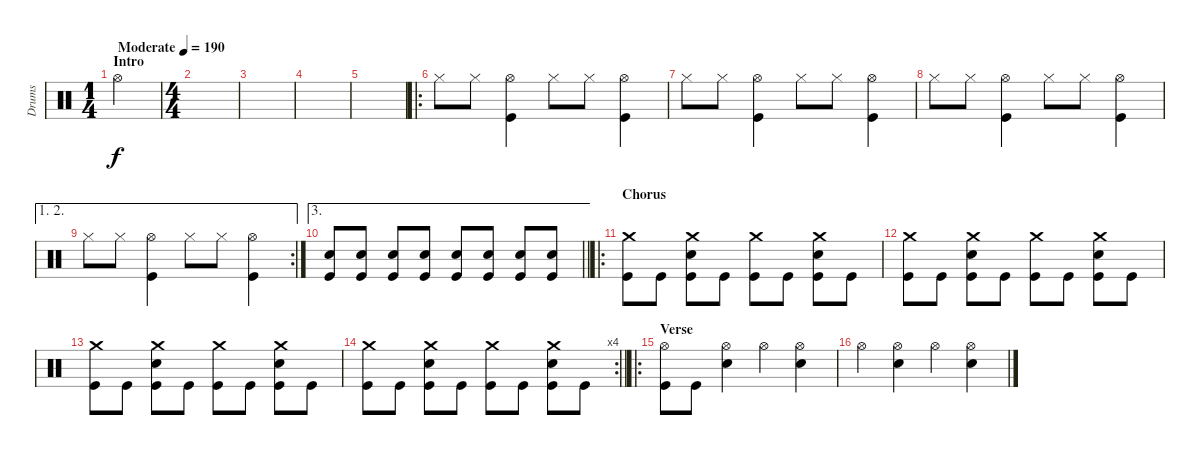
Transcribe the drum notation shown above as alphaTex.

\track ("Drums" "Drums") {instrument percussion}
\staff {score}
\articulation defaults
\ts (1 4)
\section ("" "Intro")
\tempo (190 "Moderate")
\clef neutral
\ks c "Hi-Hat (open)".4{dy f}
|
\ts (4 4)
|
|
|
|
\ro "Hi-Hat (closed)".8 "Hi-Hat (closed)".8
("Hi-Hat (open)" "Kick (hit)").4 "Hi-Hat (closed)".8 "Hi-Hat (closed)".8 ("Hi-Hat (open)" "Kick (hit)").4 |
"Hi-Hat (closed)".8 "Hi-Hat (closed)".8 ("Hi-Hat (open)" "Kick (hit)").4 "Hi-Hat (closed)".8 "Hi-Hat (closed)".8 ("Hi-Hat (open)" "Kick (hit)").4 |
"Hi-Hat (closed)".8 "Hi-Hat (closed)".8 ("Hi-Hat (open)" "Kick (hit)").4 "Hi-Hat (closed)".8 "Hi-Hat (closed)".8 ("Hi-Hat (open)" "Kick (hit)").4 |
\ae (1 2)
\rc 2 "Hi-Hat (closed)".8 "Hi-Hat (closed)".8
("Hi-Hat (open)" "Kick (hit)").4 "Hi-Hat (closed)".8 "Hi-Hat (closed)".8 ("Hi-Hat (open)" "Kick (hit)").4 |
\ae 3
\barLineRight lightlight
("Snare (hit) 2" "Kick (hit)").8 ("Snare (hit) 2" "Kick (hit)").8 ("Snare (hit) 2" "Kick (hit)").8 ("Snare (hit) 2" "Kick (hit)").8 ("Snare (hit) 2" "Kick (hit)").8 ("Snare (hit) 2" "Kick (hit)").8 ("Snare (hit) 2" "Kick (hit)").8 ("Snare (hit) 2" "Kick (hit)").8 |
\ro
\section ("" "Chorus")
("Crash medium (hit)" "Kick (hit)").8 "Kick (hit)".8 ("Crash medium (hit)" "Snare (hit) 2" "Kick (hit)").8 "Kick (hit)".8 ("Crash medium (hit)" "Kick (hit)").8 "Kick (hit)".8 ("Crash medium (hit)" "Snare (hit) 2" "Kick (hit)").8 "Kick (hit)".8 |
("Crash medium (hit)" "Kick (hit)").8 "Kick (hit)".8 ("Crash medium (hit)" "Snare (hit) 2" "Kick (hit)").8 "Kick (hit)".8 ("Crash medium (hit)" "Kick (hit)").8 "Kick (hit)".8 ("Crash medium (hit)" "Snare (hit) 2" "Kick (hit)").8 "Kick (hit)".8 |
("Crash medium (hit)" "Kick (hit)").8 "Kick (hit)".8 ("Crash medium (hit)" "Snare (hit) 2" "Kick (hit)").8 "Kick (hit)".8 ("Crash medium (hit)" "Kick (hit)").8 "Kick (hit)".8 ("Crash medium (hit)" "Snare (hit) 2" "Kick (hit)").8 "Kick (hit)".8 |
\rc 4
\barLineRight lightlight
("Crash medium (hit)" "Kick (hit)").8 "Kick (hit)".8 ("Crash medium (hit)" "Snare (hit) 2" "Kick (hit)").8 "Kick (hit)".8 ("Crash medium (hit)" "Kick (hit)").8 "Kick (hit)".8 ("Crash medium (hit)" "Snare (hit) 2" "Kick (hit)").8 "Kick (hit)".8 |
\ro
\section ("" "Verse")
("Hi-Hat (open)" "Kick (hit)").8 "Kick (hit)".8 ("Hi-Hat (open)" "Snare (hit) 2").4 "Hi-Hat (open)".4 ("Hi-Hat (open)" "Snare (hit) 2").4 |
"Hi-Hat (open)".4 ("Hi-Hat (open)" "Snare (hit) 2").4 "Hi-Hat (open)".4 ("Hi-Hat (open)" "Snare (hit) 2").4
